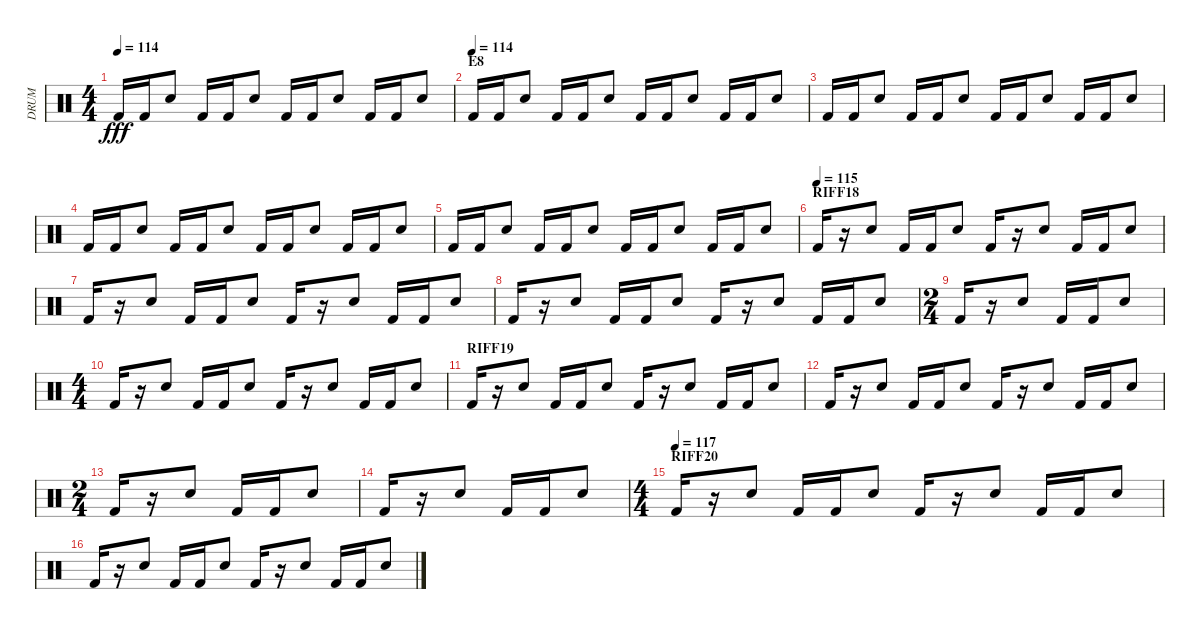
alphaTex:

\track ("DRUM" "DRUM") {instrument percussion}
\staff {score}
\articulation defaults
\ts (4 4)
\tempo 114
\clef neutral
\ks c "Kick (hit) 2".16{dy fff} "Kick (hit) 2".16 "Electric Snare (hit)".8 "Kick (hit) 2".16 "Kick (hit) 2".16 "Electric Snare (hit)".8 "Kick (hit) 2".16 "Kick (hit) 2".16 "Electric Snare (hit)".8 "Kick (hit) 2".16 "Kick (hit) 2".16 "Electric Snare (hit)".8
|
\section ("" "E8")
\tempo (114)
"Kick (hit) 2".16 "Kick (hit) 2".16 "Electric Snare (hit)".8 "Kick (hit) 2".16 "Kick (hit) 2".16 "Electric Snare (hit)".8 "Kick (hit) 2".16 "Kick (hit) 2".16 "Electric Snare (hit)".8 "Kick (hit) 2".16 "Kick (hit) 2".16 "Electric Snare (hit)".8 |
"Kick (hit) 2".16 "Kick (hit) 2".16 "Electric Snare (hit)".8 "Kick (hit) 2".16 "Kick (hit) 2".16 "Electric Snare (hit)".8 "Kick (hit) 2".16 "Kick (hit) 2".16 "Electric Snare (hit)".8 "Kick (hit) 2".16 "Kick (hit) 2".16 "Electric Snare (hit)".8 |
"Kick (hit) 2".16 "Kick (hit) 2".16 "Electric Snare (hit)".8 "Kick (hit) 2".16 "Kick (hit) 2".16 "Electric Snare (hit)".8 "Kick (hit) 2".16 "Kick (hit) 2".16 "Electric Snare (hit)".8 "Kick (hit) 2".16 "Kick (hit) 2".16 "Electric Snare (hit)".8 |
"Kick (hit) 2".16 "Kick (hit) 2".16 "Electric Snare (hit)".8 "Kick (hit) 2".16 "Kick (hit) 2".16 "Electric Snare (hit)".8 "Kick (hit) 2".16 "Kick (hit) 2".16 "Electric Snare (hit)".8 "Kick (hit) 2".16 "Kick (hit) 2".16 "Electric Snare (hit)".8 |
\section ("" "RIFF18")
\tempo (115)
"Kick (hit) 2".16 r.16 "Electric Snare (hit)".8 "Kick (hit) 2".16 "Kick (hit) 2".16 "Electric Snare (hit)".8 "Kick (hit) 2".16 r.16 "Electric Snare (hit)".8 "Kick (hit) 2".16 "Kick (hit) 2".16 "Electric Snare (hit)".8 |
"Kick (hit) 2".16 r.16 "Electric Snare (hit)".8 "Kick (hit) 2".16 "Kick (hit) 2".16 "Electric Snare (hit)".8 "Kick (hit) 2".16 r.16 "Electric Snare (hit)".8 "Kick (hit) 2".16 "Kick (hit) 2".16 "Electric Snare (hit)".8 |
"Kick (hit) 2".16 r.16 "Electric Snare (hit)".8 "Kick (hit) 2".16 "Kick (hit) 2".16 "Electric Snare (hit)".8 "Kick (hit) 2".16 r.16 "Electric Snare (hit)".8 "Kick (hit) 2".16 "Kick (hit) 2".16 "Electric Snare (hit)".8 |
\ts (2 4)
"Kick (hit) 2".16 r.16 "Electric Snare (hit)".8 "Kick (hit) 2".16 "Kick (hit) 2".16 "Electric Snare (hit)".8 |
\ts (4 4)
"Kick (hit) 2".16 r.16 "Electric Snare (hit)".8 "Kick (hit) 2".16 "Kick (hit) 2".16 "Electric Snare (hit)".8 "Kick (hit) 2".16 r.16 "Electric Snare (hit)".8 "Kick (hit) 2".16 "Kick (hit) 2".16 "Electric Snare (hit)".8 |
\section ("" "RIFF19")
"Kick (hit) 2".16 r.16 "Electric Snare (hit)".8 "Kick (hit) 2".16 "Kick (hit) 2".16 "Electric Snare (hit)".8 "Kick (hit) 2".16 r.16 "Electric Snare (hit)".8 "Kick (hit) 2".16 "Kick (hit) 2".16 "Electric Snare (hit)".8 |
"Kick (hit) 2".16 r.16 "Electric Snare (hit)".8 "Kick (hit) 2".16 "Kick (hit) 2".16 "Electric Snare (hit)".8 "Kick (hit) 2".16 r.16 "Electric Snare (hit)".8 "Kick (hit) 2".16 "Kick (hit) 2".16 "Electric Snare (hit)".8 |
\ts (2 4)
"Kick (hit) 2".16 r.16 "Electric Snare (hit)".8 "Kick (hit) 2".16 "Kick (hit) 2".16 "Electric Snare (hit)".8 |
"Kick (hit) 2".16 r.16 "Electric Snare (hit)".8 "Kick (hit) 2".16 "Kick (hit) 2".16 "Electric Snare (hit)".8 |
\ts (4 4)
\section ("" "RIFF20")
\tempo (117)
"Kick (hit) 2".16 r.16 "Electric Snare (hit)".8 "Kick (hit) 2".16 "Kick (hit) 2".16 "Electric Snare (hit)".8 "Kick (hit) 2".16 r.16 "Electric Snare (hit)".8 "Kick (hit) 2".16 "Kick (hit) 2".16 "Electric Snare (hit)".8 |
"Kick (hit) 2".16 r.16 "Electric Snare (hit)".8 "Kick (hit) 2".16 "Kick (hit) 2".16 "Electric Snare (hit)".8 "Kick (hit) 2".16 r.16 "Electric Snare (hit)".8 "Kick (hit) 2".16 "Kick (hit) 2".16 "Electric Snare (hit)".8
